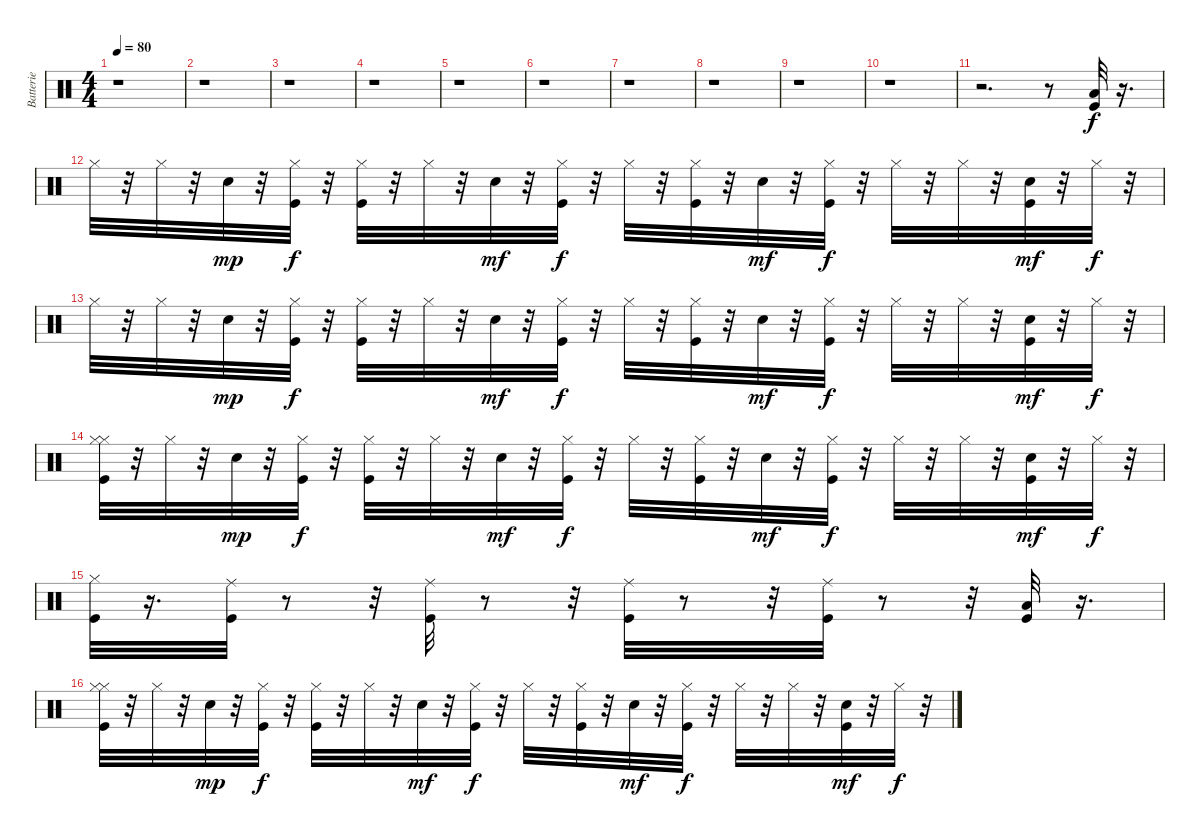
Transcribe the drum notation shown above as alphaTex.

\track ("Batterie" "Batterie") {instrument percussion}
\staff {score}
\articulation defaults
\ts (4 4)
\tempo 80
\clef neutral
\ks c
r.1{dy pp} |
r.1 |
r.1 |
r.1 |
r.1 |
r.1 |
r.1 |
r.1 |
r.1 |
r.1 |
r.2{d} r.8 ("Low Floor Tom (hit)" "Kick (hit)").32{dy f} r.16{d} |
"Hi-Hat (closed)".32 r.32 "Hi-Hat (closed)".32 r.32 "Electric Snare (hit)".32{dy mp} r.32 ("Hi-Hat (closed)" "Kick (hit)").32{dy f} r.32 ("Kick (hit)" "Hi-Hat (closed)").32 r.32 "Hi-Hat (closed)".32 r.32 "Electric Snare (hit)".32{dy mf} r.32 ("Kick (hit)" "Hi-Hat (closed)").32{dy f} r.32 "Hi-Hat (closed)".32 r.32 ("Hi-Hat (closed)" "Kick (hit)").32 r.32 "Electric Snare (hit)".32{dy mf} r.32 ("Hi-Hat (closed)" "Kick (hit)").32{dy f} r.32 "Hi-Hat (closed)".32 r.32 "Hi-Hat (closed)".32 r.32 ("Kick (hit)" "Electric Snare (hit)").32{dy mf} r.32 "Hi-Hat (closed)".32{dy f} r.32 |
"Hi-Hat (closed)".32 r.32 "Hi-Hat (closed)".32 r.32 "Electric Snare (hit)".32{dy mp} r.32 ("Kick (hit)" "Hi-Hat (closed)").32{dy f} r.32 ("Kick (hit)" "Hi-Hat (closed)").32 r.32 "Hi-Hat (closed)".32 r.32 "Electric Snare (hit)".32{dy mf} r.32 ("Kick (hit)" "Hi-Hat (closed)").32{dy f} r.32 "Hi-Hat (closed)".32 r.32 ("Kick (hit)" "Hi-Hat (closed)").32 r.32 "Electric Snare (hit)".32{dy mf} r.32 ("Kick (hit)" "Hi-Hat (closed)").32{dy f} r.32 "Hi-Hat (closed)".32 r.32 "Hi-Hat (closed)".32 r.32 ("Kick (hit)" "Electric Snare (hit)").32{dy mf} r.32 "Hi-Hat (closed)".32{dy f} r.32 |
("Kick (hit)" "Hi-Hat (closed)" "Hi-Hat (closed)").32 r.32 "Hi-Hat (closed)".32 r.32 "Electric Snare (hit)".32{dy mp} r.32 ("Hi-Hat (closed)" "Kick (hit)").32{dy f} r.32 ("Kick (hit)" "Hi-Hat (closed)").32 r.32 "Hi-Hat (closed)".32 r.32 "Electric Snare (hit)".32{dy mf} r.32 ("Kick (hit)" "Hi-Hat (closed)").32{dy f} r.32 "Hi-Hat (closed)".32 r.32 ("Kick (hit)" "Hi-Hat (closed)").32 r.32 "Electric Snare (hit)".32{dy mf} r.32 ("Hi-Hat (closed)" "Kick (hit)").32{dy f} r.32 "Hi-Hat (closed)".32 r.32 "Hi-Hat (closed)".32 r.32 ("Kick (hit)" "Electric Snare (hit)").32{dy mf} r.32 "Hi-Hat (closed)".32{dy f} r.32 |
("Kick (hit)" "Hi-Hat (closed)").32 r.16{d} ("Kick (hit)" "Ride (middle)").32 r.8 r.32 ("Ride (middle)" "Kick (hit)").32 r.8 r.32 ("Ride (middle)" "Kick (hit)").32 r.8 r.32 ("Kick (hit)" "Ride (middle)").32 r.8 r.32 ("Kick (hit)" "Low Floor Tom (hit)").32 r.16{d} |
("Hi-Hat (closed)" "Hi-Hat (closed)" "Kick (hit)").32 r.32 "Hi-Hat (closed)".32 r.32 "Electric Snare (hit)".32{dy mp} r.32 ("Hi-Hat (closed)" "Kick (hit)").32{dy f} r.32 ("Kick (hit)" "Hi-Hat (closed)").32 r.32 "Hi-Hat (closed)".32 r.32 "Electric Snare (hit)".32{dy mf} r.32 ("Kick (hit)" "Hi-Hat (closed)").32{dy f} r.32 "Hi-Hat (closed)".32 r.32 ("Hi-Hat (closed)" "Kick (hit)").32 r.32 "Electric Snare (hit)".32{dy mf} r.32 ("Kick (hit)" "Hi-Hat (closed)").32{dy f} r.32 "Hi-Hat (closed)".32 r.32 "Hi-Hat (closed)".32 r.32 ("Kick (hit)" "Electric Snare (hit)").32{dy mf} r.32 "Hi-Hat (closed)".32{dy f} r.32
